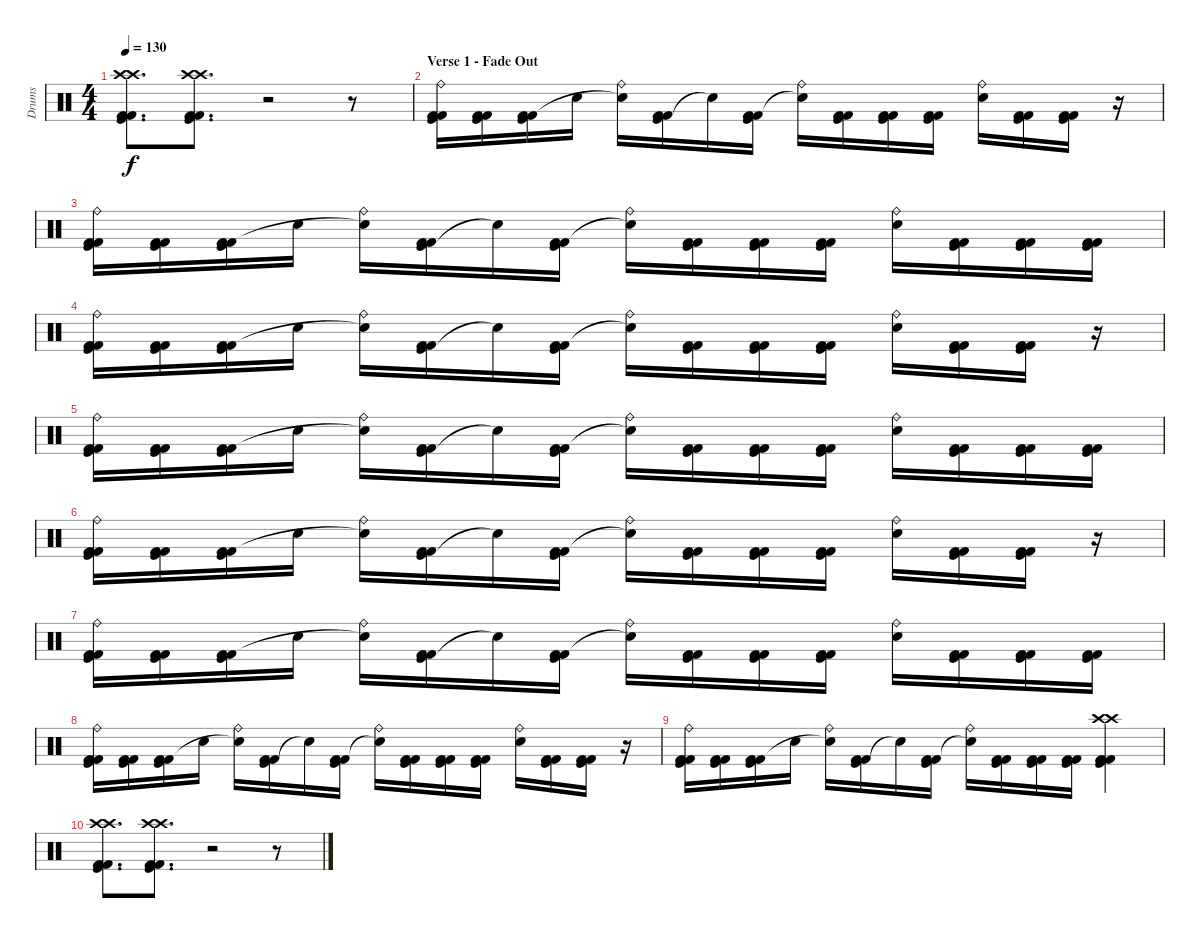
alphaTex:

\track ("Drums" "Drums") {instrument percussion}
\staff {score}
\articulation defaults
\ts (4 4)
\tempo 130
\clef neutral
\ks c
("Crash high (hit)" "Crash high (hit)" "Kick (hit)" "Kick (hit) 2" "Kick (hit) 2").8{d dy f} ("Crash high (hit)" "Crash high (hit)" "Kick (hit)" "Kick (hit) 2" "Kick (hit) 2").8{d} r.2 r.8 |
\section ("" "Verse 1 - Fade Out")
("Ride (bell)" "Kick (hit)" "Kick (hit) 2" "Kick (hit) 2").16 ("Kick (hit)" "Kick (hit) 2" "Kick (hit) 2").16 ("Kick (hit)" "Kick (hit) 2" "Kick (hit) 2").16 "Electric Snare (hit)".16 ("Ride (bell)" "Snare (hit)"{t}).16 ("Kick (hit)" "Kick (hit) 2" "Kick (hit) 2").16 "Snare (hit)"{t}.16 ("Kick (hit)" "Kick (hit) 2" "Kick (hit) 2").16 ("Ride (bell)" "Snare (hit)"{t}).16 ("Kick (hit)" "Kick (hit) 2" "Kick (hit) 2").16 ("Kick (hit)" "Kick (hit) 2" "Kick (hit) 2").16 ("Kick (hit)" "Kick (hit) 2" "Kick (hit) 2").16 ("Ride (bell)" "Electric Snare (hit)").16 ("Kick (hit)" "Kick (hit) 2" "Kick (hit) 2").16 ("Kick (hit)" "Kick (hit) 2" "Kick (hit) 2").16 r.16 |
("Ride (bell)" "Kick (hit)" "Kick (hit) 2" "Kick (hit) 2").16 ("Kick (hit)" "Kick (hit) 2" "Kick (hit) 2").16 ("Kick (hit)" "Kick (hit) 2" "Kick (hit) 2").16 "Electric Snare (hit)".16 ("Ride (bell)" "Snare (hit)"{t}).16 ("Kick (hit)" "Kick (hit) 2" "Kick (hit) 2").16 "Snare (hit)"{t}.16 ("Kick (hit)" "Kick (hit) 2" "Kick (hit) 2").16 ("Ride (bell)" "Snare (hit)"{t}).16 ("Kick (hit)" "Kick (hit) 2" "Kick (hit) 2").16 ("Kick (hit)" "Kick (hit) 2" "Kick (hit) 2").16 ("Kick (hit)" "Kick (hit) 2" "Kick (hit) 2").16 ("Ride (bell)" "Electric Snare (hit)").16 ("Kick (hit)" "Kick (hit) 2" "Kick (hit) 2").16 ("Kick (hit)" "Kick (hit) 2" "Kick (hit) 2").16 ("Kick (hit)" "Kick (hit) 2" "Kick (hit) 2").16 |
("Ride (bell)" "Kick (hit)" "Kick (hit) 2" "Kick (hit) 2").16 ("Kick (hit)" "Kick (hit) 2" "Kick (hit) 2").16 ("Kick (hit)" "Kick (hit) 2" "Kick (hit) 2").16 "Electric Snare (hit)".16 ("Ride (bell)" "Snare (hit)"{t}).16 ("Kick (hit)" "Kick (hit) 2" "Kick (hit) 2").16 "Snare (hit)"{t}.16 ("Kick (hit)" "Kick (hit) 2" "Kick (hit) 2").16 ("Ride (bell)" "Snare (hit)"{t}).16 ("Kick (hit)" "Kick (hit) 2" "Kick (hit) 2").16 ("Kick (hit)" "Kick (hit) 2" "Kick (hit) 2").16 ("Kick (hit)" "Kick (hit) 2" "Kick (hit) 2").16 ("Ride (bell)" "Electric Snare (hit)").16 ("Kick (hit)" "Kick (hit) 2" "Kick (hit) 2").16 ("Kick (hit)" "Kick (hit) 2" "Kick (hit) 2").16 r.16 |
("Ride (bell)" "Kick (hit)" "Kick (hit) 2" "Kick (hit) 2").16 ("Kick (hit)" "Kick (hit) 2" "Kick (hit) 2").16 ("Kick (hit)" "Kick (hit) 2" "Kick (hit) 2").16 "Electric Snare (hit)".16 ("Ride (bell)" "Snare (hit)"{t}).16 ("Kick (hit)" "Kick (hit) 2" "Kick (hit) 2").16 "Snare (hit)"{t}.16 ("Kick (hit)" "Kick (hit) 2" "Kick (hit) 2").16 ("Ride (bell)" "Snare (hit)"{t}).16 ("Kick (hit)" "Kick (hit) 2" "Kick (hit) 2").16 ("Kick (hit)" "Kick (hit) 2" "Kick (hit) 2").16 ("Kick (hit)" "Kick (hit) 2" "Kick (hit) 2").16 ("Ride (bell)" "Electric Snare (hit)").16 ("Kick (hit)" "Kick (hit) 2" "Kick (hit) 2").16 ("Kick (hit)" "Kick (hit) 2" "Kick (hit) 2").16 ("Kick (hit)" "Kick (hit) 2" "Kick (hit) 2").16 |
("Ride (bell)" "Kick (hit)" "Kick (hit) 2" "Kick (hit) 2").16 ("Kick (hit)" "Kick (hit) 2" "Kick (hit) 2").16 ("Kick (hit)" "Kick (hit) 2" "Kick (hit) 2").16 "Electric Snare (hit)".16 ("Ride (bell)" "Snare (hit)"{t}).16 ("Kick (hit)" "Kick (hit) 2" "Kick (hit) 2").16 "Snare (hit)"{t}.16 ("Kick (hit)" "Kick (hit) 2" "Kick (hit) 2").16 ("Ride (bell)" "Snare (hit)"{t}).16 ("Kick (hit)" "Kick (hit) 2" "Kick (hit) 2").16 ("Kick (hit)" "Kick (hit) 2" "Kick (hit) 2").16 ("Kick (hit)" "Kick (hit) 2" "Kick (hit) 2").16 ("Ride (bell)" "Electric Snare (hit)").16 ("Kick (hit)" "Kick (hit) 2" "Kick (hit) 2").16 ("Kick (hit)" "Kick (hit) 2" "Kick (hit) 2").16 r.16 |
("Ride (bell)" "Kick (hit)" "Kick (hit) 2" "Kick (hit) 2").16 ("Kick (hit)" "Kick (hit) 2" "Kick (hit) 2").16 ("Kick (hit)" "Kick (hit) 2" "Kick (hit) 2").16 "Electric Snare (hit)".16 ("Ride (bell)" "Snare (hit)"{t}).16 ("Kick (hit)" "Kick (hit) 2" "Kick (hit) 2").16 "Snare (hit)"{t}.16 ("Kick (hit)" "Kick (hit) 2" "Kick (hit) 2").16 ("Ride (bell)" "Snare (hit)"{t}).16 ("Kick (hit)" "Kick (hit) 2" "Kick (hit) 2").16 ("Kick (hit)" "Kick (hit) 2" "Kick (hit) 2").16 ("Kick (hit)" "Kick (hit) 2" "Kick (hit) 2").16 ("Ride (bell)" "Electric Snare (hit)").16 ("Kick (hit)" "Kick (hit) 2" "Kick (hit) 2").16 ("Kick (hit)" "Kick (hit) 2" "Kick (hit) 2").16 ("Kick (hit)" "Kick (hit) 2" "Kick (hit) 2").16 |
("Ride (bell)" "Kick (hit)" "Kick (hit) 2" "Kick (hit) 2").16 ("Kick (hit)" "Kick (hit) 2" "Kick (hit) 2").16 ("Kick (hit)" "Kick (hit) 2" "Kick (hit) 2").16 "Electric Snare (hit)".16 ("Ride (bell)" "Snare (hit)"{t}).16 ("Kick (hit)" "Kick (hit) 2" "Kick (hit) 2").16 "Snare (hit)"{t}.16 ("Kick (hit)" "Kick (hit) 2" "Kick (hit) 2").16 ("Ride (bell)" "Snare (hit)"{t}).16 ("Kick (hit)" "Kick (hit) 2" "Kick (hit) 2").16 ("Kick (hit)" "Kick (hit) 2" "Kick (hit) 2").16 ("Kick (hit)" "Kick (hit) 2" "Kick (hit) 2").16 ("Ride (bell)" "Electric Snare (hit)").16 ("Kick (hit)" "Kick (hit) 2" "Kick (hit) 2").16 ("Kick (hit)" "Kick (hit) 2" "Kick (hit) 2").16 r.16 |
("Ride (bell)" "Kick (hit)" "Kick (hit) 2" "Kick (hit) 2").16 ("Kick (hit)" "Kick (hit) 2" "Kick (hit) 2").16 ("Kick (hit)" "Kick (hit) 2" "Kick (hit) 2").16 "Electric Snare (hit)".16 ("Ride (bell)" "Snare (hit)"{t}).16 ("Kick (hit)" "Kick (hit) 2" "Kick (hit) 2").16 "Snare (hit)"{t}.16 ("Kick (hit)" "Kick (hit) 2" "Kick (hit) 2").16 ("Ride (bell)" "Snare (hit)"{t}).16 ("Kick (hit)" "Kick (hit) 2" "Kick (hit) 2").16 ("Kick (hit)" "Kick (hit) 2" "Kick (hit) 2").16 ("Kick (hit)" "Kick (hit) 2" "Kick (hit) 2").16 ("Crash high (hit)" "Crash high (hit)" "Kick (hit)" "Kick (hit) 2" "Kick (hit) 2").4 |
("Crash high (hit)" "Crash high (hit)" "Kick (hit)" "Kick (hit) 2" "Kick (hit) 2").8{d} ("Crash high (hit)" "Crash high (hit)" "Kick (hit)" "Kick (hit) 2" "Kick (hit) 2").8{d} r.2 r.8
